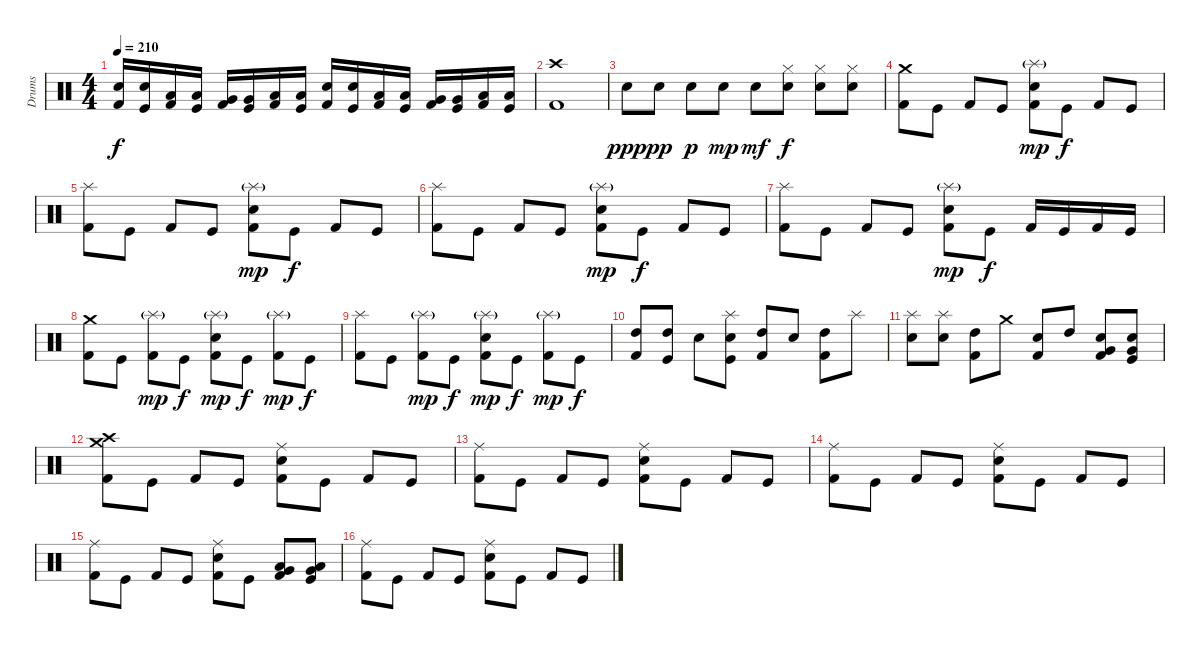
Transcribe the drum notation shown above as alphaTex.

\track ("Drums" "Drums") {instrument percussion}
\staff {score}
\articulation defaults
\ts (4 4)
\tempo 210
\clef neutral
\ks c
("Kick (hit) 2" "Electric Snare (hit)").16{dy f} ("Kick (hit)" "Electric Snare (hit)").16 ("Kick (hit) 2" "Low Tom (hit)").16 ("Kick (hit)" "Low Tom (hit)").16 ("Kick (hit) 2" "Very Low Tom (hit)").16 ("Kick (hit)" "Very Low Tom (hit)").16 ("Kick (hit) 2" "Low Floor Tom (hit)").16 ("Kick (hit)" "Low Floor Tom (hit)").16 ("Kick (hit) 2" "Electric Snare (hit)").16 ("Kick (hit)" "Electric Snare (hit)").16 ("Kick (hit) 2" "Low Tom (hit)").16 ("Kick (hit)" "Low Tom (hit)").16 ("Kick (hit) 2" "Very Low Tom (hit)").16 ("Kick (hit)" "Very Low Tom (hit)").16 ("Kick (hit) 2" "Low Floor Tom (hit)").16 ("Kick (hit)" "Low Floor Tom (hit)").16 |
("Kick (hit) 2" "Crash high (hit)").1 |
"Electric Snare (hit)".8{dy ppp} "Electric Snare (hit)".8{dy pp} "Electric Snare (hit)".8{dy p} "Electric Snare (hit)".8{dy mp} "Electric Snare (hit)".8{dy mf} ("Hi-Hat (closed)" "Electric Snare (hit)").8{dy f} ("Hi-Hat (closed)" "Electric Snare (hit)").8 ("Hi-Hat (closed)" "Electric Snare (hit)").8 |
("Kick (hit) 2" "Crash medium (hit)").8 "Kick (hit)".8 "Kick (hit) 2".8 "Kick (hit)".8 ("Kick (hit) 2" "Electric Snare (hit)" "Splash (hit)"{g}).8{dy mp} "Kick (hit)".8{dy f} "Kick (hit) 2".8 "Kick (hit)".8 |
("Kick (hit) 2" "Splash (hit)").8 "Kick (hit)".8 "Kick (hit) 2".8 "Kick (hit)".8 ("Kick (hit) 2" "Electric Snare (hit)" "Splash (hit)"{g}).8{dy mp} "Kick (hit)".8{dy f} "Kick (hit) 2".8 "Kick (hit)".8 |
("Kick (hit) 2" "Splash (hit)").8 "Kick (hit)".8 "Kick (hit) 2".8 "Kick (hit)".8 ("Kick (hit) 2" "Electric Snare (hit)" "Splash (hit)"{g}).8{dy mp} "Kick (hit)".8{dy f} "Kick (hit) 2".8 "Kick (hit)".8 |
("Kick (hit) 2" "Splash (hit)").8 "Kick (hit)".8 "Kick (hit) 2".8 "Kick (hit)".8 ("Kick (hit) 2" "Electric Snare (hit)" "Splash (hit)"{g}).8{dy mp} "Kick (hit)".8{dy f} "Kick (hit) 2".16 "Kick (hit)".16 "Kick (hit) 2".16 "Kick (hit)".16 |
("Kick (hit) 2" "Crash medium (hit)").8 "Kick (hit)".8 ("Kick (hit) 2" "Splash (hit)"{g}).8{dy mp} "Kick (hit)".8{dy f} ("Kick (hit) 2" "Electric Snare (hit)" "Splash (hit)"{g}).8{dy mp} "Kick (hit)".8{dy f} ("Kick (hit) 2" "Splash (hit)"{g}).8{dy mp} "Kick (hit)".8{dy f} |
("Kick (hit) 2" "Splash (hit)").8 "Kick (hit)".8 ("Kick (hit) 2" "Splash (hit)"{g}).8{dy mp} "Kick (hit)".8{dy f} ("Kick (hit) 2" "Electric Snare (hit)" "Splash (hit)"{g}).8{dy mp} "Kick (hit)".8{dy f} ("Kick (hit) 2" "Splash (hit)"{g}).8{dy mp} "Kick (hit)".8{dy f} |
("Kick (hit) 2" "High Tom (hit)").8 ("Kick (hit)" "High Tom (hit)").8 "Electric Snare (hit)".8 ("Kick (hit)" "Splash (hit)" "Electric Snare (hit)").8 ("Kick (hit) 2" "High Tom (hit)").8 "Electric Snare (hit)".8 ("Kick (hit) 2" "High Tom (hit)").8 "Splash (hit)".8 |
("Electric Snare (hit)" "Splash (hit)").8 ("Electric Snare (hit)" "Splash (hit)").8 ("Kick (hit) 2" "High Tom (hit)").8 "Crash medium (hit)".8 ("Kick (hit) 2" "Electric Snare (hit)").8 "High Tom (hit)".8 ("Kick (hit) 2" "Electric Snare (hit)" "Very Low Tom (hit)").8 ("Kick (hit)" "Electric Snare (hit)" "Very Low Tom (hit)").8 |
("Kick (hit) 2" "Crash medium (hit)" "Crash high (hit)").8 "Kick (hit)".8 "Kick (hit) 2".8 "Kick (hit)".8 ("Kick (hit) 2" "Electric Snare (hit)" "Ride (middle)").8 "Kick (hit)".8 "Kick (hit) 2".8 "Kick (hit)".8 |
("Kick (hit) 2" "Ride (middle)").8 "Kick (hit)".8 "Kick (hit) 2".8 "Kick (hit)".8 ("Kick (hit) 2" "Electric Snare (hit)" "Ride (middle)").8 "Kick (hit)".8 "Kick (hit) 2".8 "Kick (hit)".8 |
("Kick (hit) 2" "Ride (middle)").8 "Kick (hit)".8 "Kick (hit) 2".8 "Kick (hit)".8 ("Kick (hit) 2" "Electric Snare (hit)" "Ride (middle)").8 "Kick (hit)".8 "Kick (hit) 2".8 "Kick (hit)".8 |
("Kick (hit) 2" "Ride (middle)").8 "Kick (hit)".8 "Kick (hit) 2".8 "Kick (hit)".8 ("Kick (hit) 2" "Electric Snare (hit)" "Ride (middle)").8 "Kick (hit)".8 ("Kick (hit) 2" "Very Low Tom (hit)" "Low Floor Tom (hit)").8 ("Kick (hit)" "Very Low Tom (hit)" "Low Floor Tom (hit)").8 |
("Kick (hit) 2" "Ride (middle)").8 "Kick (hit)".8 "Kick (hit) 2".8 "Kick (hit)".8 ("Kick (hit) 2" "Electric Snare (hit)" "Ride (middle)").8 "Kick (hit)".8 "Kick (hit) 2".8 "Kick (hit)".8
